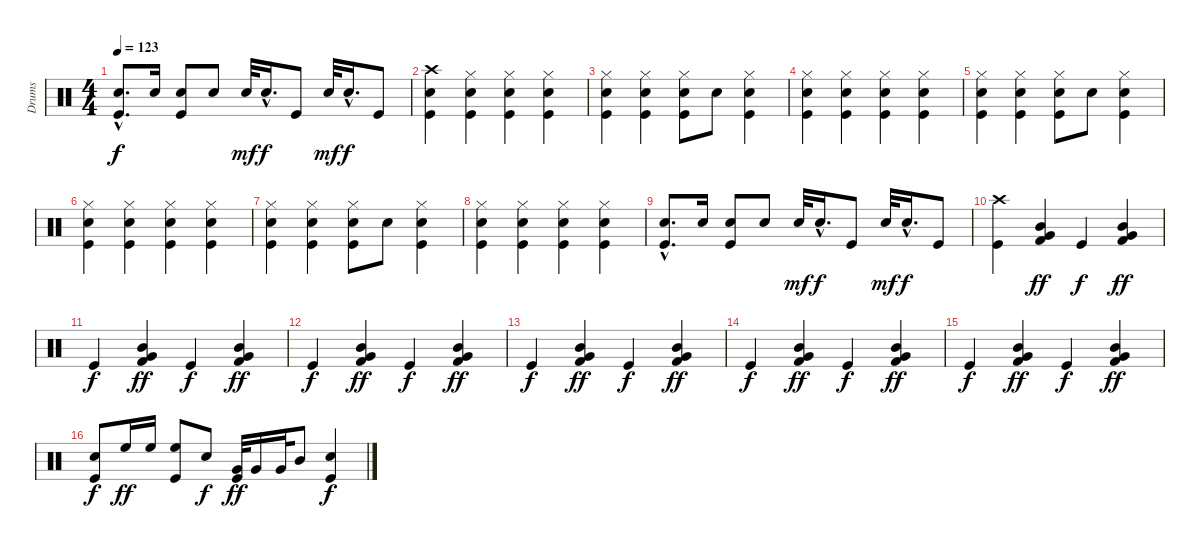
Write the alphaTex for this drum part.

\track ("Drums" "Drums") {instrument percussion}
\staff {score}
\articulation defaults
\ts (4 4)
\tempo 123
\clef neutral
\ks c
("Kick (hit)"{hac} "Electric Snare (hit)"{hac}).8{d dy f} "Electric Snare (hit)".16 ("Kick (hit)" "Electric Snare (hit)").8 "Electric Snare (hit)".8 "Electric Snare (hit)".32{dy mf} "Electric Snare (hit)"{hac}.16{d dy f} "Kick (hit)".8 "Electric Snare (hit)".32{dy mf} "Electric Snare (hit)"{hac}.16{d dy f} "Kick (hit)".8 |
("Crash high (hit)" "Kick (hit)" "Electric Snare (hit)").4 ("Hi-Hat (closed)" "Kick (hit)" "Electric Snare (hit)").4 ("Hi-Hat (closed)" "Kick (hit)" "Electric Snare (hit)").4 ("Hi-Hat (closed)" "Kick (hit)" "Electric Snare (hit)").4 |
("Electric Snare (hit)" "Kick (hit)" "Hi-Hat (closed)").4 ("Kick (hit)" "Electric Snare (hit)" "Hi-Hat (closed)").4 ("Kick (hit)" "Electric Snare (hit)" "Hi-Hat (closed)").8 "Electric Snare (hit)".8 ("Kick (hit)" "Electric Snare (hit)" "Hi-Hat (closed)").4 |
("Kick (hit)" "Electric Snare (hit)" "Hi-Hat (closed)").4 ("Kick (hit)" "Electric Snare (hit)" "Hi-Hat (closed)").4 ("Kick (hit)" "Electric Snare (hit)" "Hi-Hat (closed)").4 ("Kick (hit)" "Electric Snare (hit)" "Hi-Hat (closed)").4 |
("Electric Snare (hit)" "Kick (hit)" "Hi-Hat (closed)").4 ("Kick (hit)" "Electric Snare (hit)" "Hi-Hat (closed)").4 ("Kick (hit)" "Electric Snare (hit)" "Hi-Hat (closed)").8 "Electric Snare (hit)".8 ("Kick (hit)" "Electric Snare (hit)" "Hi-Hat (closed)").4 |
("Kick (hit)" "Electric Snare (hit)" "Hi-Hat (closed)").4 ("Kick (hit)" "Electric Snare (hit)" "Hi-Hat (closed)").4 ("Kick (hit)" "Electric Snare (hit)" "Hi-Hat (closed)").4 ("Kick (hit)" "Electric Snare (hit)" "Hi-Hat (closed)").4 |
("Electric Snare (hit)" "Kick (hit)" "Hi-Hat (closed)").4 ("Kick (hit)" "Electric Snare (hit)" "Hi-Hat (closed)").4 ("Kick (hit)" "Electric Snare (hit)" "Hi-Hat (closed)").8 "Electric Snare (hit)".8 ("Kick (hit)" "Electric Snare (hit)" "Hi-Hat (closed)").4 |
("Kick (hit)" "Electric Snare (hit)" "Hi-Hat (closed)").4 ("Kick (hit)" "Electric Snare (hit)" "Hi-Hat (closed)").4 ("Kick (hit)" "Electric Snare (hit)" "Hi-Hat (closed)").4 ("Kick (hit)" "Electric Snare (hit)" "Hi-Hat (closed)").4 |
("Kick (hit)"{hac} "Electric Snare (hit)"{hac}).8{d} "Electric Snare (hit)".16 ("Kick (hit)" "Electric Snare (hit)").8 "Electric Snare (hit)".8 "Electric Snare (hit)".32{dy mf} "Electric Snare (hit)"{hac}.16{d dy f} "Kick (hit)".8 "Electric Snare (hit)".32{dy mf} "Electric Snare (hit)"{hac}.16{d dy f} "Kick (hit)".8 |
("Crash high (hit)" "Kick (hit)").4 ("Mid Tom (hit)" "Very Low Tom (hit)" "Kick (hit) 2").4{dy ff} "Kick (hit)".4{dy f} ("Mid Tom (hit)" "Kick (hit) 2" "Very Low Tom (hit)").4{dy ff} |
"Kick (hit)".4{dy f} ("Mid Tom (hit)" "Kick (hit) 2" "Very Low Tom (hit)").4{dy ff} "Kick (hit)".4{dy f} ("Mid Tom (hit)" "Kick (hit) 2" "Very Low Tom (hit)").4{dy ff} |
"Kick (hit)".4{dy f} ("Mid Tom (hit)" "Kick (hit) 2" "Very Low Tom (hit)").4{dy ff} "Kick (hit)".4{dy f} ("Mid Tom (hit)" "Kick (hit) 2" "Very Low Tom (hit)").4{dy ff} |
"Kick (hit)".4{dy f} ("Mid Tom (hit)" "Kick (hit) 2" "Very Low Tom (hit)").4{dy ff} "Kick (hit)".4{dy f} ("Mid Tom (hit)" "Kick (hit) 2" "Very Low Tom (hit)").4{dy ff} |
"Kick (hit)".4{dy f} ("Mid Tom (hit)" "Kick (hit) 2" "Very Low Tom (hit)").4{dy ff} "Kick (hit)".4{dy f} ("Mid Tom (hit)" "Kick (hit) 2" "Very Low Tom (hit)").4{dy ff} |
"Kick (hit)".4{dy f} ("Mid Tom (hit)" "Kick (hit) 2" "Very Low Tom (hit)").4{dy ff} "Kick (hit)".4{dy f} ("Mid Tom (hit)" "Kick (hit) 2" "Very Low Tom (hit)").4{dy ff} |
("Electric Snare (hit)" "Kick (hit)").8{dy f} "High Floor Tom (hit)".16{dy ff} "High Floor Tom (hit)".16 ("High Floor Tom (hit)" "Kick (hit)").8 "Electric Snare (hit)".8{dy f} ("Very Low Tom (hit)" "Kick (hit)").32{dy ff} "Very Low Tom (hit)".16 "Very Low Tom (hit)".32 "Mid Tom (hit)".8 ("Electric Snare (hit)" "Kick (hit)").4{dy f}
